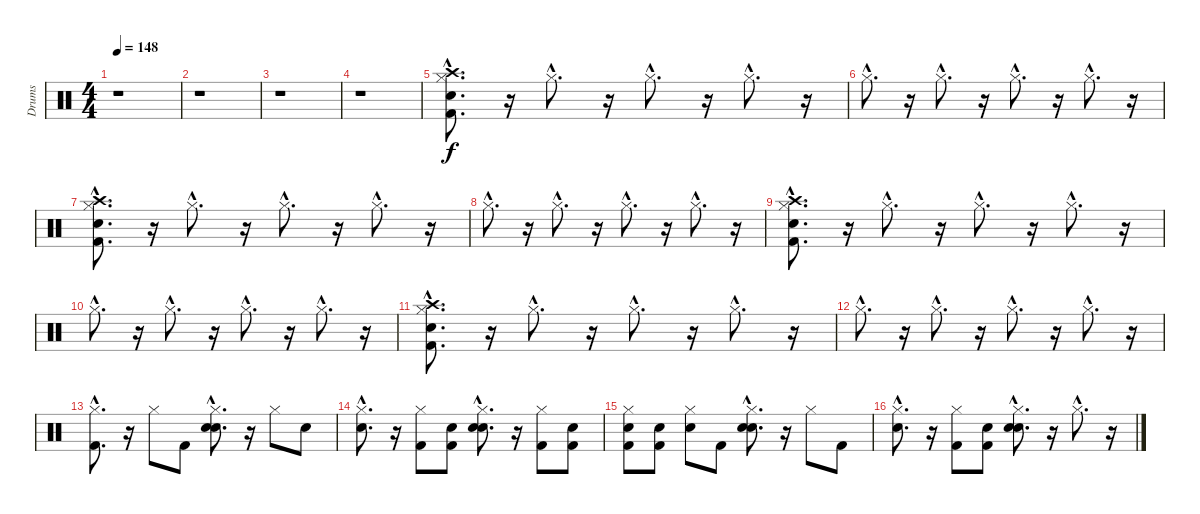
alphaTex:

\track ("Drums" "Drums") {instrument percussion}
\staff {score}
\articulation defaults
\ts (4 4)
\tempo 148
\clef neutral
\ks c
r.1{dy f} |
r.1 |
r.1 |
r.1 |
("Kick (hit) 2"{hac} "Snare (hit) 2"{hac} "Hi-Hat (closed)"{hac} "Crash high (hit)"{hac}).8{d} r.16 "Hi-Hat (closed)"{hac}.8{d} r.16 "Hi-Hat (closed)"{hac}.8{d} r.16 "Hi-Hat (closed)"{hac}.8{d} r.16 |
"Hi-Hat (closed)"{hac}.8{d} r.16 "Hi-Hat (closed)"{hac}.8{d} r.16 "Hi-Hat (closed)"{hac}.8{d} r.16 "Hi-Hat (closed)"{hac}.8{d} r.16 |
("Kick (hit) 2"{hac} "Snare (hit) 2"{hac} "Hi-Hat (closed)"{hac} "Crash high (hit)"{hac}).8{d} r.16 "Hi-Hat (closed)"{hac}.8{d} r.16 "Hi-Hat (closed)"{hac}.8{d} r.16 "Hi-Hat (closed)"{hac}.8{d} r.16 |
"Hi-Hat (closed)"{hac}.8{d} r.16 "Hi-Hat (closed)"{hac}.8{d} r.16 "Hi-Hat (closed)"{hac}.8{d} r.16 "Hi-Hat (closed)"{hac}.8{d} r.16 |
("Kick (hit) 2"{hac} "Snare (hit) 2"{hac} "Hi-Hat (closed)"{hac} "Crash high (hit)"{hac}).8{d} r.16 "Hi-Hat (closed)"{hac}.8{d} r.16 "Hi-Hat (closed)"{hac}.8{d} r.16 "Hi-Hat (closed)"{hac}.8{d} r.16 |
"Hi-Hat (closed)"{hac}.8{d} r.16 "Hi-Hat (closed)"{hac}.8{d} r.16 "Hi-Hat (closed)"{hac}.8{d} r.16 "Hi-Hat (closed)"{hac}.8{d} r.16 |
("Kick (hit) 2"{hac} "Snare (hit) 2"{hac} "Hi-Hat (closed)"{hac} "Crash high (hit)"{hac}).8{d} r.16 "Hi-Hat (closed)"{hac}.8{d} r.16 "Hi-Hat (closed)"{hac}.8{d} r.16 "Hi-Hat (closed)"{hac}.8{d} r.16 |
"Hi-Hat (closed)"{hac}.8{d} r.16 "Hi-Hat (closed)"{hac}.8{d} r.16 "Hi-Hat (closed)"{hac}.8{d} r.16 "Hi-Hat (closed)"{hac}.8{d} r.16 |
("Kick (hit) 2"{hac} "Hi-Hat (closed)"{hac}).8{d} r.16 "Hi-Hat (closed)".8 "Kick (hit) 2".8 ("Snare (hit)"{hac} "Snare (hit) 2"{hac} "Hi-Hat (closed)"{hac}).8{d} r.16 "Hi-Hat (closed)".8 "Snare (hit) 2".8 |
("Snare (hit)"{hac} "Hi-Hat (closed)"{hac}).8{d} r.16 ("Kick (hit) 2" "Hi-Hat (closed)").8 ("Snare (hit)" "Kick (hit) 2").8 ("Snare (hit)"{hac} "Snare (hit) 2"{hac} "Hi-Hat (closed)"{hac}).8{d} r.16 ("Kick (hit) 2" "Hi-Hat (closed)").8 ("Snare (hit)" "Kick (hit) 2").8 |
("Snare (hit)" "Kick (hit) 2" "Hi-Hat (closed)").8 ("Snare (hit)" "Kick (hit) 2").8 ("Snare (hit)" "Hi-Hat (closed)").8 "Kick (hit) 2".8 ("Snare (hit)"{hac} "Snare (hit) 2"{hac} "Hi-Hat (closed)"{hac}).8{d} r.16 "Hi-Hat (closed)".8 "Kick (hit) 2".8 |
("Snare (hit)"{hac} "Hi-Hat (closed)"{hac}).8{d} r.16 ("Kick (hit) 2" "Hi-Hat (closed)").8 ("Snare (hit)" "Kick (hit) 2").8 ("Snare (hit)"{hac} "Snare (hit) 2"{hac} "Hi-Hat (closed)"{hac}).8{d} r.16 "Hi-Hat (closed)"{hac}.8{d} r.16
